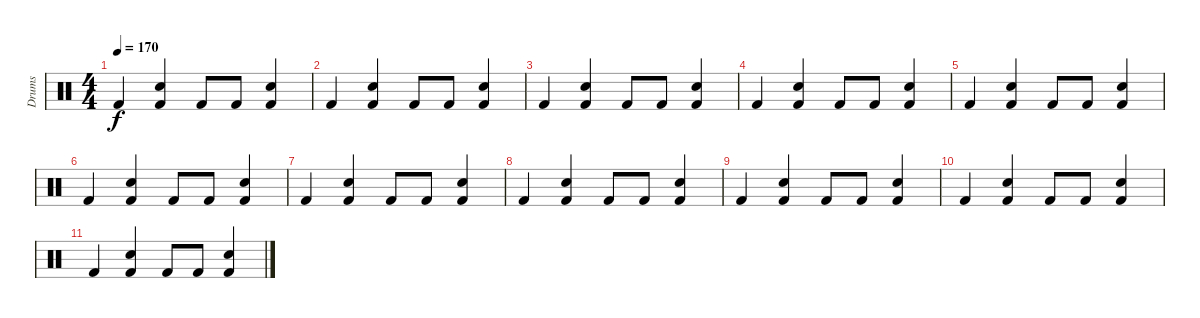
\track ("Drums" "Drums") {instrument percussion}
\staff {score}
\articulation defaults
\ts (4 4)
\tempo 170
\clef neutral
\ks c "Kick (hit) 2".4{dy f}
("Kick (hit) 2" "Snare (hit) 2").4 "Kick (hit) 2".8 "Kick (hit) 2".8 ("Kick (hit) 2" "Snare (hit) 2").4 |
"Kick (hit) 2".4 ("Kick (hit) 2" "Snare (hit) 2").4 "Kick (hit) 2".8 "Kick (hit) 2".8 ("Kick (hit) 2" "Snare (hit) 2").4 |
"Kick (hit) 2".4 ("Kick (hit) 2" "Snare (hit) 2").4 "Kick (hit) 2".8 "Kick (hit) 2".8 ("Kick (hit) 2" "Snare (hit) 2").4 |
"Kick (hit) 2".4 ("Kick (hit) 2" "Snare (hit) 2").4 "Kick (hit) 2".8 "Kick (hit) 2".8 ("Kick (hit) 2" "Snare (hit) 2").4 |
"Kick (hit) 2".4 ("Kick (hit) 2" "Snare (hit) 2").4 "Kick (hit) 2".8 "Kick (hit) 2".8 ("Kick (hit) 2" "Snare (hit) 2").4 |
"Kick (hit) 2".4 ("Kick (hit) 2" "Snare (hit) 2").4 "Kick (hit) 2".8 "Kick (hit) 2".8 ("Kick (hit) 2" "Snare (hit) 2").4 |
"Kick (hit) 2".4 ("Kick (hit) 2" "Snare (hit) 2").4 "Kick (hit) 2".8 "Kick (hit) 2".8 ("Kick (hit) 2" "Snare (hit) 2").4 |
"Kick (hit) 2".4 ("Kick (hit) 2" "Snare (hit) 2").4 "Kick (hit) 2".8 "Kick (hit) 2".8 ("Kick (hit) 2" "Snare (hit) 2").4 |
"Kick (hit) 2".4 ("Kick (hit) 2" "Snare (hit) 2").4 "Kick (hit) 2".8 "Kick (hit) 2".8 ("Kick (hit) 2" "Snare (hit) 2").4 |
"Kick (hit) 2".4 ("Kick (hit) 2" "Snare (hit) 2").4 "Kick (hit) 2".8 "Kick (hit) 2".8 ("Kick (hit) 2" "Snare (hit) 2").4 |
"Kick (hit) 2".4 ("Kick (hit) 2" "Snare (hit) 2").4 "Kick (hit) 2".8 "Kick (hit) 2".8 ("Kick (hit) 2" "Snare (hit) 2").4
